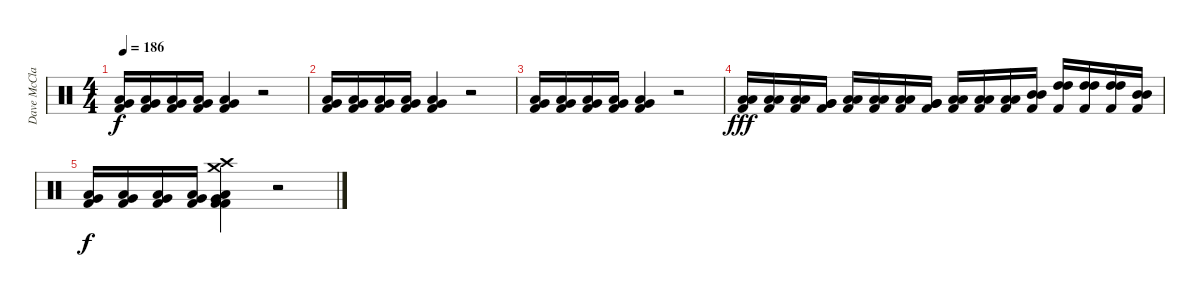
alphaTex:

\track ("Dave McClain" "Dave McCla") {instrument percussion}
\staff {score}
\articulation defaults
\ts (4 4)
\tempo 186
\clef neutral
\ks c
("Very Low Tom (hit)" "Low Floor Tom (hit)" "Kick (hit) 2").16{dy f} ("Very Low Tom (hit)" "Low Floor Tom (hit)" "Kick (hit) 2").16 ("Very Low Tom (hit)" "Low Floor Tom (hit)" "Kick (hit) 2").16 ("Very Low Tom (hit)" "Low Floor Tom (hit)" "Kick (hit) 2").16 ("Very Low Tom (hit)" "Low Floor Tom (hit)" "Kick (hit) 2").4 r.2 |
("Very Low Tom (hit)" "Low Floor Tom (hit)" "Kick (hit) 2").16 ("Very Low Tom (hit)" "Low Floor Tom (hit)" "Kick (hit) 2").16 ("Very Low Tom (hit)" "Low Floor Tom (hit)" "Kick (hit) 2").16 ("Very Low Tom (hit)" "Low Floor Tom (hit)" "Kick (hit) 2").16 ("Very Low Tom (hit)" "Low Floor Tom (hit)" "Kick (hit) 2").4 r.2 |
("Very Low Tom (hit)" "Low Floor Tom (hit)" "Kick (hit) 2").16 ("Very Low Tom (hit)" "Low Floor Tom (hit)" "Kick (hit) 2").16 ("Very Low Tom (hit)" "Low Floor Tom (hit)" "Kick (hit) 2").16 ("Very Low Tom (hit)" "Low Floor Tom (hit)" "Kick (hit) 2").16 ("Very Low Tom (hit)" "Low Floor Tom (hit)" "Kick (hit) 2").4 r.2 |
("Low Tom (hit)" "Low Tom (hit)" "Kick (hit) 2").16{dy fff} ("Low Tom (hit)" "Low Tom (hit)" "Kick (hit) 2").16 ("Low Tom (hit)" "Low Tom (hit)" "Kick (hit) 2").16 ("Very Low Tom (hit)" "Very Low Tom (hit)" "Kick (hit) 2").16 ("Low Floor Tom (hit)" "Low Floor Tom (hit)" "Kick (hit) 2").16 ("Low Floor Tom (hit)" "Low Floor Tom (hit)" "Kick (hit) 2").16 ("Low Floor Tom (hit)" "Low Floor Tom (hit)" "Kick (hit) 2").16 ("Very Low Tom (hit)" "Very Low Tom (hit)" "Kick (hit) 2").16 ("Low Tom (hit)" "Low Tom (hit)" "Kick (hit) 2").16 ("Low Tom (hit)" "Low Tom (hit)" "Kick (hit) 2").16 ("Low Tom (hit)" "Low Tom (hit)" "Kick (hit) 2").16 ("Mid Tom (hit)" "Mid Tom (hit)" "Kick (hit) 2").16 ("High Tom (hit)" "High Tom (hit)" "Kick (hit) 2").16 ("High Tom (hit)" "High Tom (hit)" "Kick (hit) 2").16 ("High Tom (hit)" "High Tom (hit)" "Kick (hit) 2").16 ("Mid Tom (hit)" "Mid Tom (hit)" "Kick (hit) 2").16 |
("Very Low Tom (hit)" "Low Floor Tom (hit)" "Kick (hit) 2").16{dy f} ("Very Low Tom (hit)" "Low Floor Tom (hit)" "Kick (hit) 2").16 ("Very Low Tom (hit)" "Low Floor Tom (hit)" "Kick (hit) 2").16 ("Very Low Tom (hit)" "Low Floor Tom (hit)" "Kick (hit) 2").16 ("Kick (hit) 2" "Crash medium (hit)" "Crash high (hit)" "Very Low Tom (hit)" "Low Floor Tom (hit)" "Kick (hit) 2").4 r.2
